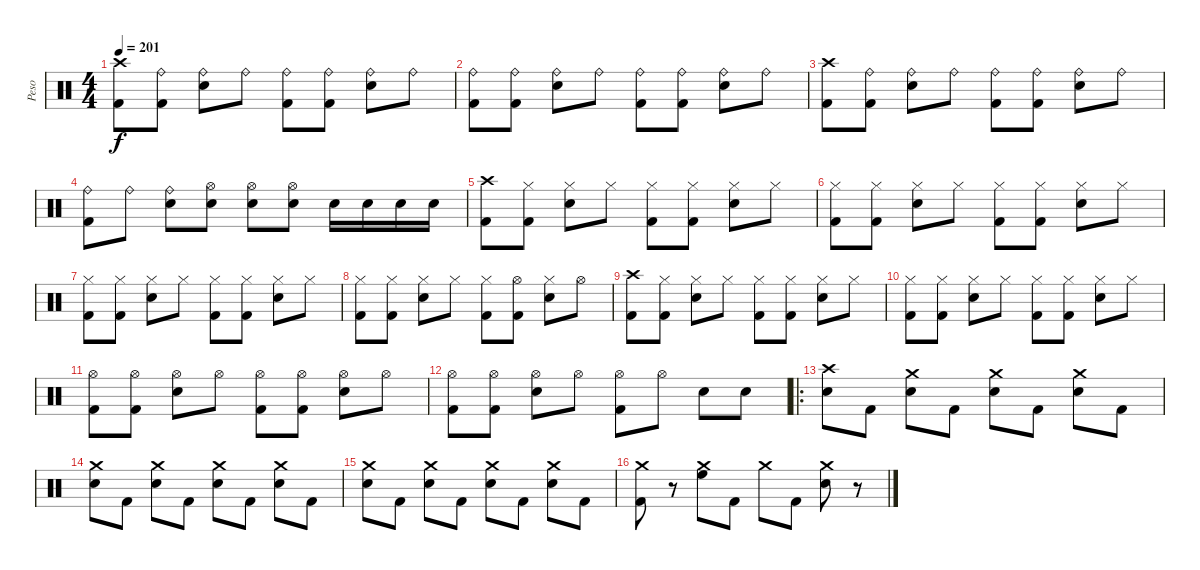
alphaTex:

\track ("Peso" "Peso") {instrument percussion}
\staff {score}
\articulation defaults
\ts (4 4)
\tempo 201
\clef neutral
\ks c
("Crash high (hit)" "Kick (hit) 2").8{dy f} ("Ride (bell)" "Kick (hit) 2").8 ("Ride (bell)" "Snare (hit) 2").8 "Ride (bell)".8 ("Ride (bell)" "Kick (hit) 2").8 ("Ride (bell)" "Kick (hit) 2").8 ("Ride (bell)" "Snare (hit) 2").8 "Ride (bell)".8 |
("Ride (bell)" "Kick (hit) 2").8 ("Ride (bell)" "Kick (hit) 2").8 ("Ride (bell)" "Snare (hit) 2").8 "Ride (bell)".8 ("Ride (bell)" "Kick (hit) 2").8 ("Ride (bell)" "Kick (hit) 2").8 ("Ride (bell)" "Snare (hit) 2").8 "Ride (bell)".8 |
("Crash high (hit)" "Kick (hit) 2").8 ("Ride (bell)" "Kick (hit) 2").8 ("Ride (bell)" "Snare (hit) 2").8 "Ride (bell)".8 ("Ride (bell)" "Kick (hit) 2").8 ("Ride (bell)" "Kick (hit) 2").8 ("Ride (bell)" "Snare (hit) 2").8 "Ride (bell)".8 |
("Ride (bell)" "Kick (hit) 2").8 "Ride (bell)".8 ("Ride (bell)" "Snare (hit) 2").8 ("Hi-Hat (open)" "Snare (hit) 2").8 ("Hi-Hat (open)" "Snare (hit) 2").8 ("Hi-Hat (open)" "Snare (hit) 2").8 "Snare (hit) 2".16 "Snare (hit) 2".16 "Snare (hit) 2".16 "Snare (hit) 2".16 |
("Crash high (hit)" "Kick (hit) 2").8 ("Hi-Hat (closed)" "Kick (hit) 2").8 ("Hi-Hat (closed)" "Snare (hit) 2").8 "Hi-Hat (closed)".8 ("Hi-Hat (closed)" "Kick (hit) 2").8 ("Hi-Hat (closed)" "Kick (hit) 2").8 ("Hi-Hat (closed)" "Snare (hit) 2").8 "Hi-Hat (closed)".8 |
("Hi-Hat (closed)" "Kick (hit) 2").8 ("Hi-Hat (closed)" "Kick (hit) 2").8 ("Hi-Hat (closed)" "Snare (hit) 2").8 "Hi-Hat (closed)".8 ("Hi-Hat (closed)" "Kick (hit) 2").8 ("Hi-Hat (closed)" "Kick (hit) 2").8 ("Hi-Hat (closed)" "Snare (hit) 2").8 "Hi-Hat (closed)".8 |
("Hi-Hat (closed)" "Kick (hit) 2").8 ("Hi-Hat (closed)" "Kick (hit) 2").8 ("Hi-Hat (closed)" "Snare (hit) 2").8 "Hi-Hat (closed)".8 ("Hi-Hat (closed)" "Kick (hit) 2").8 ("Hi-Hat (closed)" "Kick (hit) 2").8 ("Hi-Hat (closed)" "Snare (hit) 2").8 "Hi-Hat (closed)".8 |
("Hi-Hat (closed)" "Kick (hit) 2").8 ("Hi-Hat (closed)" "Kick (hit) 2").8 ("Hi-Hat (closed)" "Snare (hit) 2").8 "Hi-Hat (closed)".8 ("Hi-Hat (closed)" "Kick (hit) 2").8 ("Hi-Hat (open)" "Kick (hit) 2").8 ("Hi-Hat (closed)" "Snare (hit) 2").8 "Hi-Hat (open)".8 |
("Crash high (hit)" "Kick (hit) 2").8 ("Hi-Hat (closed)" "Kick (hit) 2").8 ("Hi-Hat (closed)" "Snare (hit) 2").8 "Hi-Hat (closed)".8 ("Hi-Hat (closed)" "Kick (hit) 2").8 ("Hi-Hat (closed)" "Kick (hit) 2").8 ("Hi-Hat (closed)" "Snare (hit) 2").8 "Hi-Hat (closed)".8 |
("Hi-Hat (closed)" "Kick (hit) 2").8 ("Hi-Hat (closed)" "Kick (hit) 2").8 ("Hi-Hat (closed)" "Snare (hit) 2").8 "Hi-Hat (closed)".8 ("Hi-Hat (closed)" "Kick (hit) 2").8 ("Hi-Hat (closed)" "Kick (hit) 2").8 ("Hi-Hat (closed)" "Snare (hit) 2").8 "Hi-Hat (closed)".8 |
("Hi-Hat (open)" "Kick (hit) 2").8{volume 12} ("Hi-Hat (open)" "Kick (hit) 2").8 ("Hi-Hat (open)" "Snare (hit) 2").8 "Hi-Hat (open)".8{volume 13} ("Hi-Hat (open)" "Kick (hit) 2").8 ("Hi-Hat (open)" "Kick (hit) 2").8 ("Hi-Hat (open)" "Snare (hit) 2").8 "Hi-Hat (open)".8{volume 14} |
("Hi-Hat (open)" "Kick (hit) 2").8 ("Hi-Hat (open)" "Kick (hit) 2").8 ("Hi-Hat (open)" "Snare (hit) 2").8{volume 15} "Hi-Hat (open)".8 ("Hi-Hat (open)" "Kick (hit) 2").8 "Hi-Hat (open)".8 "Snare (hit) 2".8 "Snare (hit) 2".8 |
\ro
("Crash high (hit)" "Snare (hit) 2").8 "Kick (hit) 2".8 ("Crash medium (hit)" "Snare (hit) 2").8 "Kick (hit) 2".8 ("Crash medium (hit)" "Snare (hit) 2").8 "Kick (hit) 2".8 ("Crash medium (hit)" "Snare (hit) 2").8 "Kick (hit) 2".8 |
("Crash medium (hit)" "Snare (hit) 2").8 "Kick (hit) 2".8 ("Crash medium (hit)" "Snare (hit) 2").8 "Kick (hit) 2".8 ("Crash medium (hit)" "Snare (hit) 2").8 "Kick (hit) 2".8 ("Crash medium (hit)" "Snare (hit) 2").8 "Kick (hit) 2".8 |
("Crash medium (hit)" "Snare (hit) 2").8 "Kick (hit) 2".8 ("Crash medium (hit)" "Snare (hit) 2").8 "Kick (hit) 2".8 ("Crash medium (hit)" "Snare (hit) 2").8 "Kick (hit) 2".8 ("Crash medium (hit)" "Snare (hit) 2").8 "Kick (hit) 2".8 |
("Crash medium (hit)" "Kick (hit) 2").8 r.8 ("Crash medium (hit)" "High Floor Tom (hit)").8 "Kick (hit) 2".8 "Crash medium (hit)".8 "Kick (hit) 2".8 ("Crash medium (hit)" "Snare (hit) 2").8 r.8
